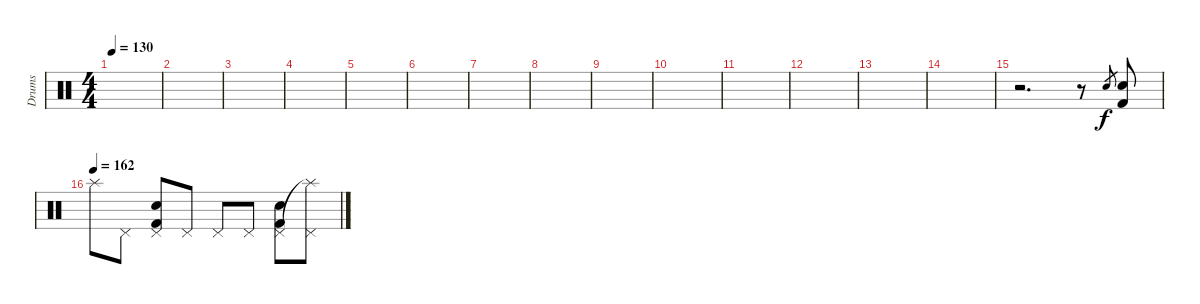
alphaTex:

\track ("Drums" "Drums") {instrument percussion}
\staff {score}
\articulation defaults
\ts (4 4)
\tempo 130
\clef neutral
\ks c
|
|
|
|
|
|
|
|
|
|
|
|
|
|
r.2{d} r.8 "Snare (hit) 2".8{gr} ("Snare (hit) 2" "Kick (hit) 2").8 |
\tempo (162)
"Splash (hit)".8 "Pedal Hi-Hat (hit)".8 ("Pedal Hi-Hat (hit)" "Snare (hit) 2" "Kick (hit) 2").8 "Pedal Hi-Hat (hit)".8 "Pedal Hi-Hat (hit)".8 "Pedal Hi-Hat (hit)".8 ("Pedal Hi-Hat (hit)" "Snare (hit) 2" "Kick (hit) 2").8 ("Splash (hit)"{t} "Pedal Hi-Hat (hit)").8
